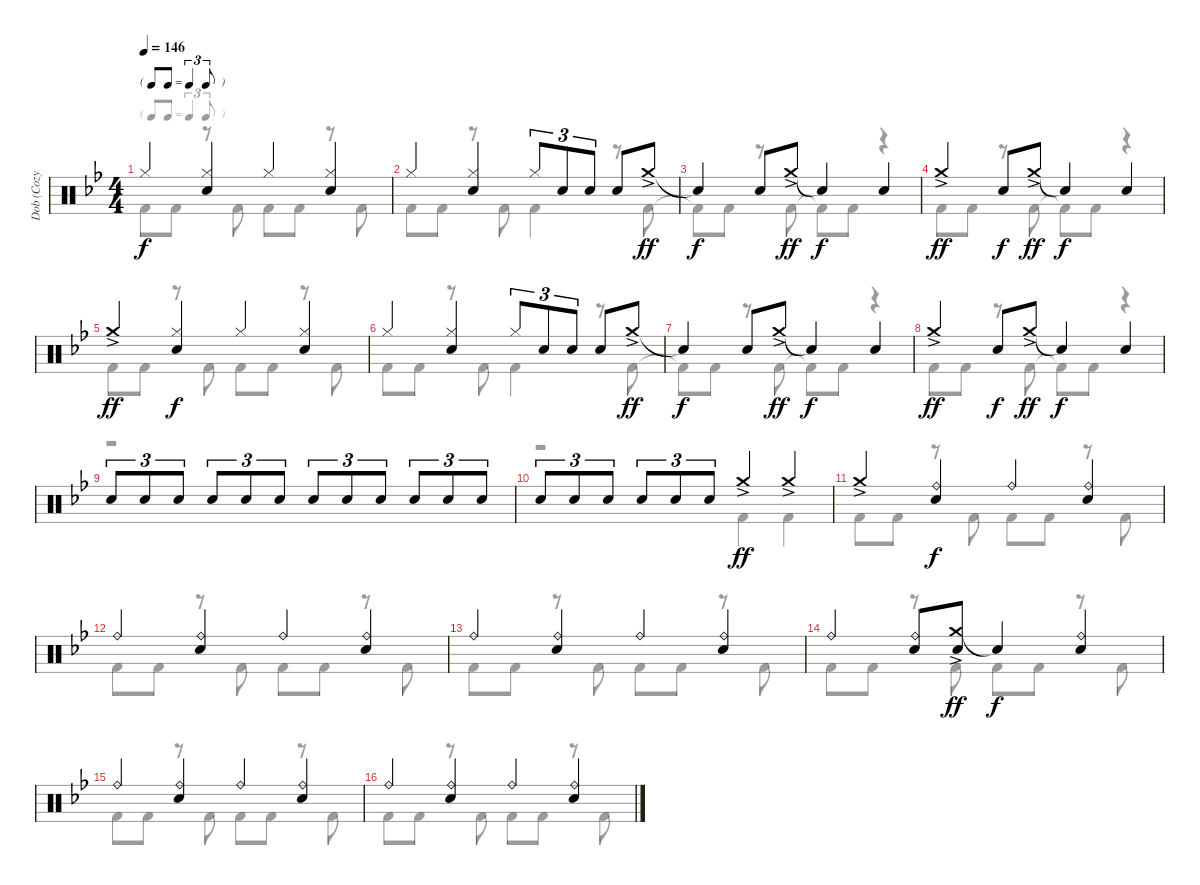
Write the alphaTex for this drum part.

\track ("Dob (Cozy Powell)" "Dob (Cozy ") {instrument percussion}
\staff {score}
\articulation defaults
\voice
\ts (4 4)
\tf triplet8th
\tempo 146
\clef neutral
\ks bb "Hi-Hat (closed)".4{dy f}
("Hi-Hat (closed)" "Electric Snare (hit)").4 "Hi-Hat (closed)".4 ("Hi-Hat (closed)" "Electric Snare (hit)").4 |
"Hi-Hat (closed)".4 ("Hi-Hat (closed)" "Electric Snare (hit)").4 "Hi-Hat (closed)".8{tu (3 2)} "Electric Snare (hit)".8{tu (3 2)} "Electric Snare (hit)".8{tu (3 2)} "Electric Snare (hit)".8 "Crash medium (hit)"{ac}.8{dy ff} |
"Snare (hit)"{t}.4{dy f} "Electric Snare (hit)".8 "Crash medium (hit)"{ac}.8{dy ff} "Snare (hit)"{t}.4{dy f} "Electric Snare (hit)".4 |
"Crash medium (hit)"{ac}.4{dy ff} "Electric Snare (hit)".8{dy f} "Crash medium (hit)"{ac}.8{dy ff} "Snare (hit)"{t}.4{dy f} "Electric Snare (hit)".4 |
"Crash medium (hit)"{ac}.4{dy ff} ("Hi-Hat (closed)" "Electric Snare (hit)").4{dy f} "Hi-Hat (closed)".4 ("Hi-Hat (closed)" "Electric Snare (hit)").4 |
"Hi-Hat (closed)".4 ("Hi-Hat (closed)" "Electric Snare (hit)").4 "Hi-Hat (closed)".8{tu (3 2)} "Electric Snare (hit)".8{tu (3 2)} "Electric Snare (hit)".8{tu (3 2)} "Electric Snare (hit)".8 "Crash medium (hit)"{ac}.8{dy ff} |
"Snare (hit)"{t}.4{dy f} "Electric Snare (hit)".8 "Crash medium (hit)"{ac}.8{dy ff} "Snare (hit)"{t}.4{dy f} "Electric Snare (hit)".4 |
"Crash medium (hit)"{ac}.4{dy ff} "Electric Snare (hit)".8{dy f} "Crash medium (hit)"{ac}.8{dy ff} "Snare (hit)"{t}.4{dy f} "Electric Snare (hit)".4 |
"Electric Snare (hit)".8{tu (3 2)} "Electric Snare (hit)".8{tu (3 2)} "Electric Snare (hit)".8{tu (3 2)} "Electric Snare (hit)".8{tu (3 2)} "Electric Snare (hit)".8{tu (3 2)} "Electric Snare (hit)".8{tu (3 2)} "Electric Snare (hit)".8{tu (3 2)} "Electric Snare (hit)".8{tu (3 2)} "Electric Snare (hit)".8{tu (3 2)} "Electric Snare (hit)".8{tu (3 2)} "Electric Snare (hit)".8{tu (3 2)} "Electric Snare (hit)".8{tu (3 2)} |
"Electric Snare (hit)".8{tu (3 2)} "Electric Snare (hit)".8{tu (3 2)} "Electric Snare (hit)".8{tu (3 2)} "Electric Snare (hit)".8{tu (3 2)} "Electric Snare (hit)".8{tu (3 2)} "Electric Snare (hit)".8{tu (3 2)} "Crash medium (hit)"{ac}.4{dy ff} "Crash medium (hit)"{ac}.4 |
"Crash medium (hit)"{ac}.4 ("Ride (bell)" "Electric Snare (hit)").4{dy f} "Ride (bell)".4 ("Ride (bell)" "Electric Snare (hit)").4 |
"Ride (bell)".4 ("Ride (bell)" "Electric Snare (hit)").4 "Ride (bell)".4 ("Ride (bell)" "Electric Snare (hit)").4 |
"Ride (bell)".4 ("Ride (bell)" "Electric Snare (hit)").4 "Ride (bell)".4 ("Ride (bell)" "Electric Snare (hit)").4 |
"Ride (bell)".4 ("Ride (bell)" "Electric Snare (hit)").8 ("Crash medium (hit)"{ac} "Electric Snare (hit)").8{dy ff} "Snare (hit)"{t}.4{dy f} ("Ride (bell)" "Electric Snare (hit)").4 |
"Ride (bell)".4 ("Ride (bell)" "Electric Snare (hit)").4 "Ride (bell)".4 ("Ride (bell)" "Electric Snare (hit)").4 |
"Ride (bell)".4 ("Ride (bell)" "Electric Snare (hit)").4 "Ride (bell)".4 ("Ride (bell)" "Electric Snare (hit)").4
\voice
\clef neutral
\ottava regular
\simile none
\ks bb "Kick (hit) 2".8{dy f} "Kick (hit) 2".8
r.8 "Kick (hit) 2".8 "Kick (hit) 2".8 "Kick (hit) 2".8 r.8 "Kick (hit) 2".8 |
"Kick (hit) 2".8 "Kick (hit) 2".8 r.8 "Kick (hit) 2".8 "Kick (hit) 2".4 r.8 "Kick (hit) 2".8 |
"Kick (hit) 2"{t}.8 "Kick (hit) 2".8 r.8 "Kick (hit) 2".8 "Kick (hit) 2"{t}.8 "Kick (hit) 2".8 r.4 |
"Kick (hit) 2".8 "Kick (hit) 2".8 r.8 "Kick (hit) 2".8 "Kick (hit) 2"{t}.8 "Kick (hit) 2".8 r.4 |
"Kick (hit) 2".8 "Kick (hit) 2".8 r.8 "Kick (hit) 2".8 "Kick (hit) 2".8 "Kick (hit) 2".8 r.8 "Kick (hit) 2".8 |
"Kick (hit) 2".8 "Kick (hit) 2".8 r.8 "Kick (hit) 2".8 "Kick (hit) 2".4 r.8 "Kick (hit) 2".8 |
"Kick (hit) 2"{t}.8 "Kick (hit) 2".8 r.8 "Kick (hit) 2".8 "Kick (hit) 2"{t}.8 "Kick (hit) 2".8 r.4 |
"Kick (hit) 2".8 "Kick (hit) 2".8 r.8 "Kick (hit) 2".8 "Kick (hit) 2"{t}.8 "Kick (hit) 2".8 r.4 |
r.1 |
r.2 "Kick (hit) 2".4 "Kick (hit) 2".4 |
"Kick (hit) 2".8 "Kick (hit) 2".8 r.8 "Kick (hit) 2".8 "Kick (hit) 2".8 "Kick (hit) 2".8 r.8 "Kick (hit) 2".8 |
"Kick (hit) 2".8 "Kick (hit) 2".8 r.8 "Kick (hit) 2".8 "Kick (hit) 2".8 "Kick (hit) 2".8 r.8 "Kick (hit) 2".8 |
"Kick (hit) 2".8 "Kick (hit) 2".8 r.8 "Kick (hit) 2".8 "Kick (hit) 2".8 "Kick (hit) 2".8 r.8 "Kick (hit) 2".8 |
"Kick (hit) 2".8 "Kick (hit) 2".8 r.8 "Kick (hit) 2".8 "Kick (hit) 2".8 "Kick (hit) 2".8 r.8 "Kick (hit) 2".8 |
"Kick (hit) 2".8 "Kick (hit) 2".8 r.8 "Kick (hit) 2".8 "Kick (hit) 2".8 "Kick (hit) 2".8 r.8 "Kick (hit) 2".8 |
"Kick (hit) 2".8 "Kick (hit) 2".8 r.8 "Kick (hit) 2".8 "Kick (hit) 2".8 "Kick (hit) 2".8 r.8 "Kick (hit) 2".8
